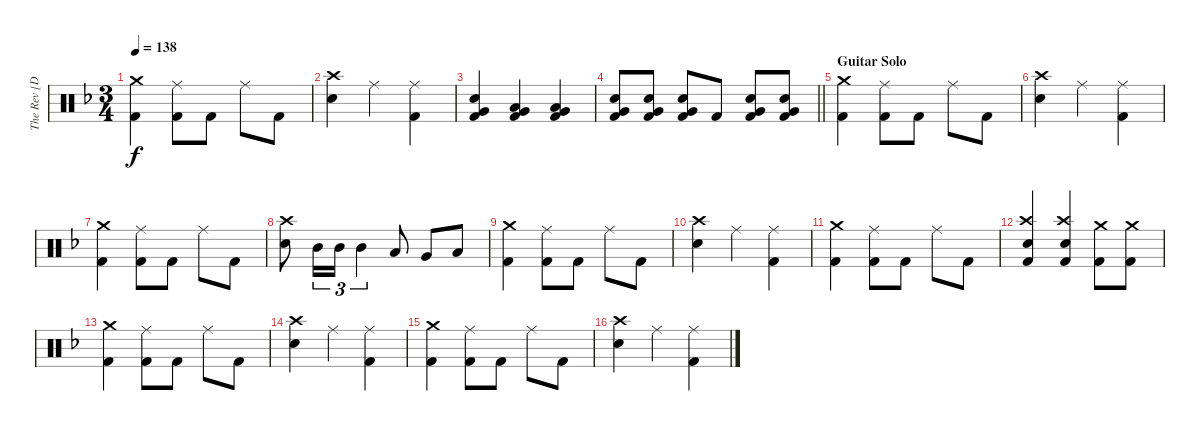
\track ("The Rev [Drum]" "The Rev [D") {instrument percussion}
\staff {score}
\articulation defaults
\ts (3 4)
\tempo 138
\clef neutral
\ks f
("Crash medium (hit)" "Kick (hit) 2").4{dy f} ("Ride (middle)" "Kick (hit) 2").8 "Kick (hit) 2".8 "Ride (middle)".8 "Kick (hit) 2".8 |
("Crash high (hit)" "Electric Snare (hit)").4 "Ride (middle)".4 ("Ride (middle)" "Kick (hit) 2").4 |
("Very Low Tom (hit)" "Electric Snare (hit)" "Kick (hit) 2").4 ("Very Low Tom (hit)" "Low Tom (hit)" "Kick (hit) 2").4 ("Low Floor Tom (hit)" "Very Low Tom (hit)" "Kick (hit) 2").4 |
\barLineRight lightlight
("Very Low Tom (hit)" "Electric Snare (hit)" "Kick (hit) 2").8 ("Very Low Tom (hit)" "Electric Snare (hit)" "Kick (hit) 2").8 ("Very Low Tom (hit)" "Electric Snare (hit)" "Kick (hit) 2").8 "Kick (hit) 2".8 ("Very Low Tom (hit)" "Electric Snare (hit)" "Kick (hit) 2").8 ("Very Low Tom (hit)" "Electric Snare (hit)" "Kick (hit) 2").8 |
\section ("" "Guitar Solo")
("Crash medium (hit)" "Kick (hit) 2").4 ("Ride (middle)" "Kick (hit) 2").8 "Kick (hit) 2".8 "Ride (middle)".8 "Kick (hit) 2".8 |
("Crash high (hit)" "Electric Snare (hit)").4 "Ride (middle)".4 ("Ride (middle)" "Kick (hit) 2").4 |
("Crash medium (hit)" "Kick (hit) 2").4 ("Ride (middle)" "Kick (hit) 2").8 "Kick (hit) 2".8 "Ride (middle)".8 "Kick (hit) 2".8 |
("Crash high (hit)" "Electric Snare (hit)").8 "Mid Tom (hit)".16{tu (3 2)} "Mid Tom (hit)".16{tu (3 2)} "Mid Tom (hit)".4{tu (3 2)} "Low Tom (hit)".8 "Very Low Tom (hit)".8 "Low Floor Tom (hit)".8 |
("Crash medium (hit)" "Kick (hit) 2").4 ("Ride (middle)" "Kick (hit) 2").8 "Kick (hit) 2".8 "Ride (middle)".8 "Kick (hit) 2".8 |
("Crash high (hit)" "Electric Snare (hit)").4 "Ride (middle)".4 ("Ride (middle)" "Kick (hit) 2").4 |
("Crash medium (hit)" "Kick (hit) 2").4 ("Ride (middle)" "Kick (hit) 2").8 "Kick (hit) 2".8 "Ride (middle)".8 "Kick (hit) 2".8 |
("Crash high (hit)" "Electric Snare (hit)" "Kick (hit) 2").4 ("Crash high (hit)" "Electric Snare (hit)" "Kick (hit) 2").4 ("Crash medium (hit)" "Kick (hit) 2").8 ("Crash medium (hit)" "Kick (hit) 2").8 |
("Crash medium (hit)" "Kick (hit) 2").4 ("Ride (middle)" "Kick (hit) 2").8 "Kick (hit) 2".8 "Ride (middle)".8 "Kick (hit) 2".8 |
("Crash high (hit)" "Electric Snare (hit)").4 "Ride (middle)".4 ("Ride (middle)" "Kick (hit) 2").4 |
("Crash medium (hit)" "Kick (hit) 2").4 ("Ride (middle)" "Kick (hit) 2").8 "Kick (hit) 2".8 "Ride (middle)".8 "Kick (hit) 2".8 |
("Crash high (hit)" "Electric Snare (hit)").4 "Ride (middle)".4 ("Ride (middle)" "Kick (hit) 2").4
